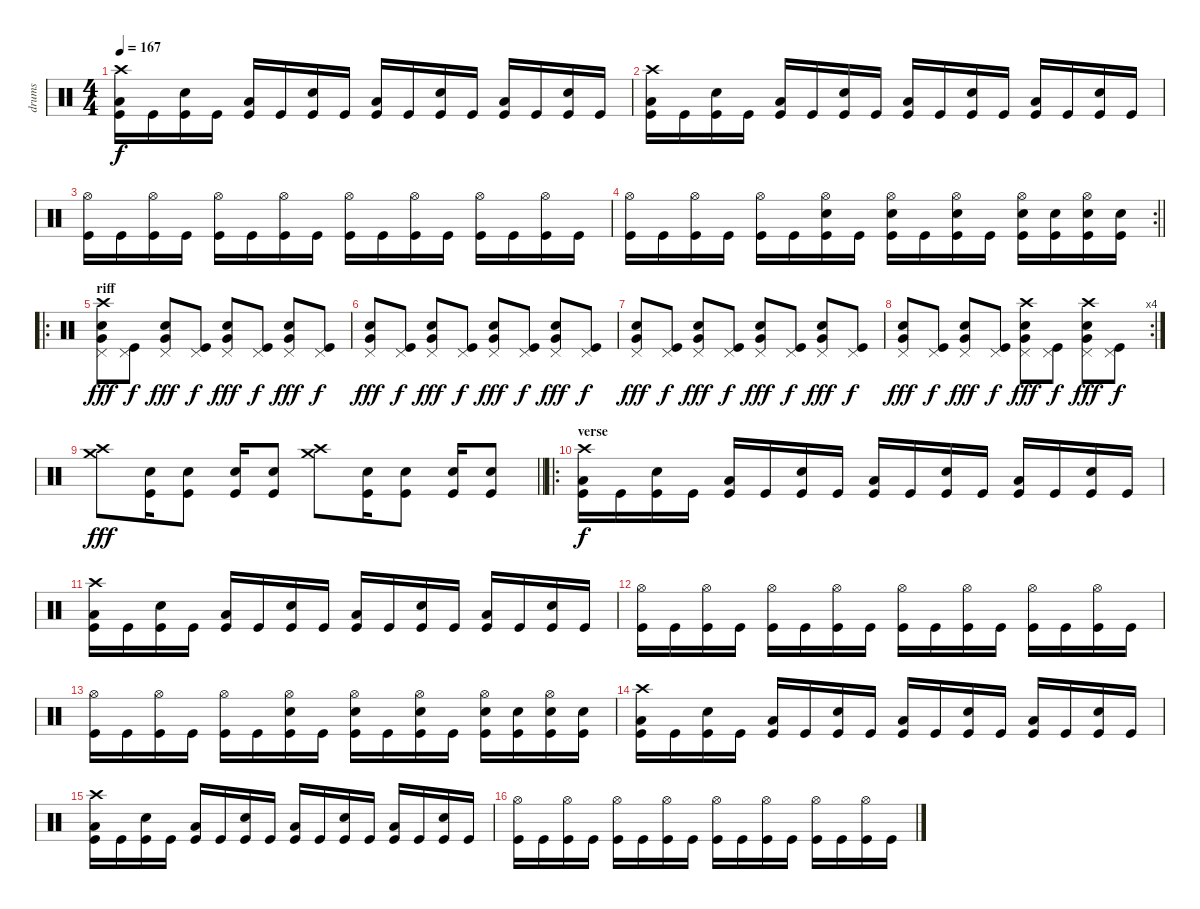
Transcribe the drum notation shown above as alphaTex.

\track ("drums" "drums") {instrument percussion}
\staff {score}
\articulation defaults
\ts (4 4)
\tempo 167
\clef neutral
\ks c
("Crash high (hit)" "Low Tom (hit)" "Kick (hit)").16{dy f} "Kick (hit)".16 ("Snare (hit) 2" "Kick (hit)").16 "Kick (hit)".16 ("Low Tom (hit)" "Kick (hit)").16 "Kick (hit)".16 ("Snare (hit) 2" "Kick (hit)").16 "Kick (hit)".16 ("Low Tom (hit)" "Kick (hit)").16 "Kick (hit)".16 ("Snare (hit) 2" "Kick (hit)").16 "Kick (hit)".16 ("Low Tom (hit)" "Kick (hit)").16 "Kick (hit)".16 ("Snare (hit) 2" "Kick (hit)").16 "Kick (hit)".16 |
("Crash high (hit)" "Low Tom (hit)" "Kick (hit)").16 "Kick (hit)".16 ("Snare (hit) 2" "Kick (hit)").16 "Kick (hit)".16 ("Low Tom (hit)" "Kick (hit)").16 "Kick (hit)".16 ("Snare (hit) 2" "Kick (hit)").16 "Kick (hit)".16 ("Low Tom (hit)" "Kick (hit)").16 "Kick (hit)".16 ("Snare (hit) 2" "Kick (hit)").16 "Kick (hit)".16 ("Low Tom (hit)" "Kick (hit)").16 "Kick (hit)".16 ("Snare (hit) 2" "Kick (hit)").16 "Kick (hit)".16 |
("Hi-Hat (open)" "Kick (hit)").16 "Kick (hit)".16 ("Hi-Hat (open)" "Kick (hit)").16 "Kick (hit)".16 ("Hi-Hat (open)" "Kick (hit)").16 "Kick (hit)".16 ("Hi-Hat (open)" "Kick (hit)").16 "Kick (hit)".16 ("Hi-Hat (open)" "Kick (hit)").16 "Kick (hit)".16 ("Hi-Hat (open)" "Kick (hit)").16 "Kick (hit)".16 ("Hi-Hat (open)" "Kick (hit)").16 "Kick (hit)".16 ("Hi-Hat (open)" "Kick (hit)").16 "Kick (hit)".16 |
\rc 2
\barLineRight lightlight
("Hi-Hat (open)" "Kick (hit)").16 "Kick (hit)".16 ("Hi-Hat (open)" "Kick (hit)").16 "Kick (hit)".16 ("Hi-Hat (open)" "Kick (hit)").16 "Kick (hit)".16 ("Snare (hit) 2" "Hi-Hat (open)" "Kick (hit)").16 "Kick (hit)".16 ("Snare (hit) 2" "Hi-Hat (open)" "Kick (hit)").16 "Kick (hit)".16 ("Snare (hit) 2" "Hi-Hat (open)" "Kick (hit)").16 "Kick (hit)".16 ("Snare (hit) 2" "Hi-Hat (open)" "Kick (hit)").16 ("Snare (hit) 2" "Kick (hit)").16 ("Snare (hit) 2" "Hi-Hat (open)" "Kick (hit)").16 ("Snare (hit) 2" "Kick (hit)").16 |
\ro
\section ("" "riff")
("Snare (hit) 2" "Very Low Tom (hit)" "Pedal Hi-Hat (hit)" "Crash high (hit)").8{dy fff} ("Pedal Hi-Hat (hit)" "Kick (hit)").8{dy f} ("Snare (hit) 2" "Very Low Tom (hit)" "Pedal Hi-Hat (hit)").8{dy fff} ("Pedal Hi-Hat (hit)" "Kick (hit)").8{dy f} ("Snare (hit) 2" "Very Low Tom (hit)" "Pedal Hi-Hat (hit)").8{dy fff} ("Pedal Hi-Hat (hit)" "Kick (hit)").8{dy f} ("Snare (hit) 2" "Very Low Tom (hit)" "Pedal Hi-Hat (hit)").8{dy fff} ("Pedal Hi-Hat (hit)" "Kick (hit)").8{dy f} |
("Snare (hit) 2" "Very Low Tom (hit)" "Pedal Hi-Hat (hit)").8{dy fff} ("Pedal Hi-Hat (hit)" "Kick (hit)").8{dy f} ("Snare (hit) 2" "Very Low Tom (hit)" "Pedal Hi-Hat (hit)").8{dy fff} ("Pedal Hi-Hat (hit)" "Kick (hit)").8{dy f} ("Snare (hit) 2" "Very Low Tom (hit)" "Pedal Hi-Hat (hit)").8{dy fff} ("Pedal Hi-Hat (hit)" "Kick (hit)").8{dy f} ("Snare (hit) 2" "Very Low Tom (hit)" "Pedal Hi-Hat (hit)").8{dy fff} ("Pedal Hi-Hat (hit)" "Kick (hit)").8{dy f} |
("Snare (hit) 2" "Very Low Tom (hit)" "Pedal Hi-Hat (hit)").8{dy fff} ("Pedal Hi-Hat (hit)" "Kick (hit)").8{dy f} ("Snare (hit) 2" "Very Low Tom (hit)" "Pedal Hi-Hat (hit)").8{dy fff} ("Pedal Hi-Hat (hit)" "Kick (hit)").8{dy f} ("Snare (hit) 2" "Very Low Tom (hit)" "Pedal Hi-Hat (hit)").8{dy fff} ("Pedal Hi-Hat (hit)" "Kick (hit)").8{dy f} ("Snare (hit) 2" "Very Low Tom (hit)" "Pedal Hi-Hat (hit)").8{dy fff} ("Pedal Hi-Hat (hit)" "Kick (hit)").8{dy f} |
\rc 4
("Snare (hit) 2" "Very Low Tom (hit)" "Pedal Hi-Hat (hit)").8{dy fff} ("Pedal Hi-Hat (hit)" "Kick (hit)").8{dy f} ("Snare (hit) 2" "Very Low Tom (hit)" "Pedal Hi-Hat (hit)").8{dy fff} ("Pedal Hi-Hat (hit)" "Kick (hit)").8{dy f} ("Snare (hit) 2" "Very Low Tom (hit)" "Pedal Hi-Hat (hit)" "Crash high (hit)").8{dy fff} ("Pedal Hi-Hat (hit)" "Kick (hit)").8{dy f} ("Snare (hit) 2" "Very Low Tom (hit)" "Pedal Hi-Hat (hit)" "Crash high (hit)").8{dy fff} ("Pedal Hi-Hat (hit)" "Kick (hit)").8{dy f} |
\barLineRight lightlight
("Crash medium (hit)" "Crash high (hit)").8{dy fff} ("Snare (hit) 2" "Kick (hit)").16 ("Snare (hit) 2" "Kick (hit)").8 ("Snare (hit) 2" "Kick (hit)").16 ("Snare (hit) 2" "Kick (hit)").8 ("Crash medium (hit)" "Crash high (hit)").8 ("Snare (hit) 2" "Kick (hit)").16 ("Snare (hit) 2" "Kick (hit)").8 ("Snare (hit) 2" "Kick (hit)").16 ("Snare (hit) 2" "Kick (hit)").8 |
\ro
\section ("" "verse")
("Crash high (hit)" "Low Tom (hit)" "Kick (hit)").16{dy f} "Kick (hit)".16 ("Snare (hit) 2" "Kick (hit)").16 "Kick (hit)".16 ("Low Tom (hit)" "Kick (hit)").16 "Kick (hit)".16 ("Snare (hit) 2" "Kick (hit)").16 "Kick (hit)".16 ("Low Tom (hit)" "Kick (hit)").16 "Kick (hit)".16 ("Snare (hit) 2" "Kick (hit)").16 "Kick (hit)".16 ("Low Tom (hit)" "Kick (hit)").16 "Kick (hit)".16 ("Snare (hit) 2" "Kick (hit)").16 "Kick (hit)".16 |
("Crash high (hit)" "Low Tom (hit)" "Kick (hit)").16 "Kick (hit)".16 ("Snare (hit) 2" "Kick (hit)").16 "Kick (hit)".16 ("Low Tom (hit)" "Kick (hit)").16 "Kick (hit)".16 ("Snare (hit) 2" "Kick (hit)").16 "Kick (hit)".16 ("Low Tom (hit)" "Kick (hit)").16 "Kick (hit)".16 ("Snare (hit) 2" "Kick (hit)").16 "Kick (hit)".16 ("Low Tom (hit)" "Kick (hit)").16 "Kick (hit)".16 ("Snare (hit) 2" "Kick (hit)").16 "Kick (hit)".16 |
("Hi-Hat (open)" "Kick (hit)").16 "Kick (hit)".16 ("Hi-Hat (open)" "Kick (hit)").16 "Kick (hit)".16 ("Hi-Hat (open)" "Kick (hit)").16 "Kick (hit)".16 ("Hi-Hat (open)" "Kick (hit)").16 "Kick (hit)".16 ("Hi-Hat (open)" "Kick (hit)").16 "Kick (hit)".16 ("Hi-Hat (open)" "Kick (hit)").16 "Kick (hit)".16 ("Hi-Hat (open)" "Kick (hit)").16 "Kick (hit)".16 ("Hi-Hat (open)" "Kick (hit)").16 "Kick (hit)".16 |
("Hi-Hat (open)" "Kick (hit)").16 "Kick (hit)".16 ("Hi-Hat (open)" "Kick (hit)").16 "Kick (hit)".16 ("Hi-Hat (open)" "Kick (hit)").16 "Kick (hit)".16 ("Snare (hit) 2" "Hi-Hat (open)" "Kick (hit)").16 "Kick (hit)".16 ("Snare (hit) 2" "Hi-Hat (open)" "Kick (hit)").16 "Kick (hit)".16 ("Snare (hit) 2" "Hi-Hat (open)" "Kick (hit)").16 "Kick (hit)".16 ("Snare (hit) 2" "Hi-Hat (open)" "Kick (hit)").16 ("Snare (hit) 2" "Kick (hit)").16 ("Snare (hit) 2" "Hi-Hat (open)" "Kick (hit)").16 ("Snare (hit) 2" "Kick (hit)").16 |
("Crash high (hit)" "Low Tom (hit)" "Kick (hit)").16 "Kick (hit)".16 ("Snare (hit) 2" "Kick (hit)").16 "Kick (hit)".16 ("Low Tom (hit)" "Kick (hit)").16 "Kick (hit)".16 ("Snare (hit) 2" "Kick (hit)").16 "Kick (hit)".16 ("Low Tom (hit)" "Kick (hit)").16 "Kick (hit)".16 ("Snare (hit) 2" "Kick (hit)").16 "Kick (hit)".16 ("Low Tom (hit)" "Kick (hit)").16 "Kick (hit)".16 ("Snare (hit) 2" "Kick (hit)").16 "Kick (hit)".16 |
("Crash high (hit)" "Low Tom (hit)" "Kick (hit)").16 "Kick (hit)".16 ("Snare (hit) 2" "Kick (hit)").16 "Kick (hit)".16 ("Low Tom (hit)" "Kick (hit)").16 "Kick (hit)".16 ("Snare (hit) 2" "Kick (hit)").16 "Kick (hit)".16 ("Low Tom (hit)" "Kick (hit)").16 "Kick (hit)".16 ("Snare (hit) 2" "Kick (hit)").16 "Kick (hit)".16 ("Low Tom (hit)" "Kick (hit)").16 "Kick (hit)".16 ("Snare (hit) 2" "Kick (hit)").16 "Kick (hit)".16 |
("Hi-Hat (open)" "Kick (hit)").16 "Kick (hit)".16 ("Hi-Hat (open)" "Kick (hit)").16 "Kick (hit)".16 ("Hi-Hat (open)" "Kick (hit)").16 "Kick (hit)".16 ("Hi-Hat (open)" "Kick (hit)").16 "Kick (hit)".16 ("Hi-Hat (open)" "Kick (hit)").16 "Kick (hit)".16 ("Hi-Hat (open)" "Kick (hit)").16 "Kick (hit)".16 ("Hi-Hat (open)" "Kick (hit)").16 "Kick (hit)".16 ("Hi-Hat (open)" "Kick (hit)").16 "Kick (hit)".16
